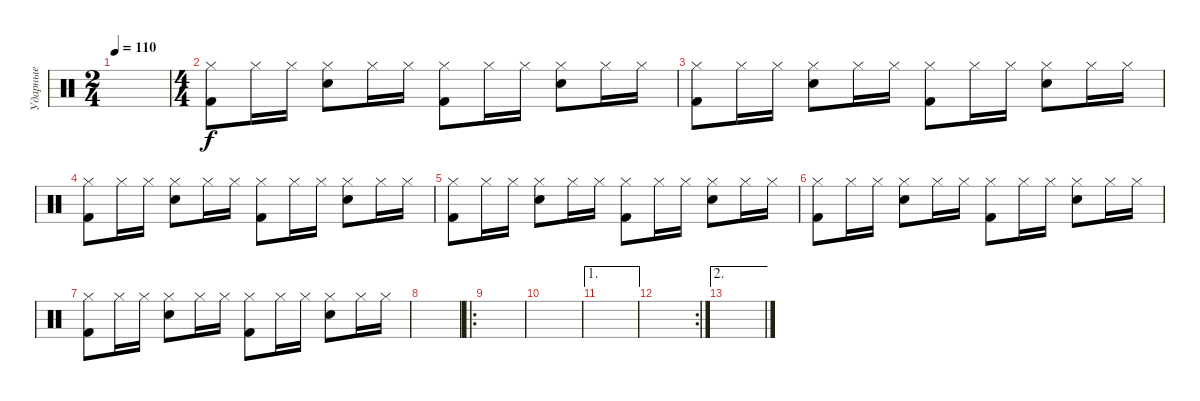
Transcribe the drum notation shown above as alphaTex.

\track ("Ударные" "Ударные") {instrument percussion}
\staff {score}
\articulation defaults
\ts (2 4)
\tempo 110
\clef neutral
\ks c
|
\ts (4 4)
("Hi-Hat (closed)" "Kick (hit) 2").8 "Hi-Hat (closed)".16 "Hi-Hat (closed)".16 ("Hi-Hat (closed)" "Electric Snare (hit)").8 "Hi-Hat (closed)".16 "Hi-Hat (closed)".16 ("Hi-Hat (closed)" "Kick (hit) 2").8 "Hi-Hat (closed)".16 "Hi-Hat (closed)".16 ("Hi-Hat (closed)" "Electric Snare (hit)").8 "Hi-Hat (closed)".16 "Hi-Hat (closed)".16 |
("Hi-Hat (closed)" "Kick (hit) 2").8 "Hi-Hat (closed)".16 "Hi-Hat (closed)".16 ("Hi-Hat (closed)" "Electric Snare (hit)").8 "Hi-Hat (closed)".16 "Hi-Hat (closed)".16 ("Hi-Hat (closed)" "Kick (hit) 2").8 "Hi-Hat (closed)".16 "Hi-Hat (closed)".16 ("Hi-Hat (closed)" "Electric Snare (hit)").8 "Hi-Hat (closed)".16 "Hi-Hat (closed)".16 |
("Hi-Hat (closed)" "Kick (hit) 2").8 "Hi-Hat (closed)".16 "Hi-Hat (closed)".16 ("Hi-Hat (closed)" "Electric Snare (hit)").8 "Hi-Hat (closed)".16 "Hi-Hat (closed)".16 ("Hi-Hat (closed)" "Kick (hit) 2").8 "Hi-Hat (closed)".16 "Hi-Hat (closed)".16 ("Hi-Hat (closed)" "Electric Snare (hit)").8 "Hi-Hat (closed)".16 "Hi-Hat (closed)".16 |
("Hi-Hat (closed)" "Kick (hit) 2").8 "Hi-Hat (closed)".16 "Hi-Hat (closed)".16 ("Hi-Hat (closed)" "Electric Snare (hit)").8 "Hi-Hat (closed)".16 "Hi-Hat (closed)".16 ("Hi-Hat (closed)" "Kick (hit) 2").8 "Hi-Hat (closed)".16 "Hi-Hat (closed)".16 ("Hi-Hat (closed)" "Electric Snare (hit)").8 "Hi-Hat (closed)".16 "Hi-Hat (closed)".16 |
("Hi-Hat (closed)" "Kick (hit) 2").8 "Hi-Hat (closed)".16 "Hi-Hat (closed)".16 ("Hi-Hat (closed)" "Electric Snare (hit)").8 "Hi-Hat (closed)".16 "Hi-Hat (closed)".16 ("Hi-Hat (closed)" "Kick (hit) 2").8 "Hi-Hat (closed)".16 "Hi-Hat (closed)".16 ("Hi-Hat (closed)" "Electric Snare (hit)").8 "Hi-Hat (closed)".16 "Hi-Hat (closed)".16 |
("Hi-Hat (closed)" "Kick (hit) 2").8 "Hi-Hat (closed)".16 "Hi-Hat (closed)".16 ("Hi-Hat (closed)" "Electric Snare (hit)").8 "Hi-Hat (closed)".16 "Hi-Hat (closed)".16 ("Hi-Hat (closed)" "Kick (hit) 2").8 "Hi-Hat (closed)".16 "Hi-Hat (closed)".16 ("Hi-Hat (closed)" "Electric Snare (hit)").8 "Hi-Hat (closed)".16 "Hi-Hat (closed)".16 |
|
\ro
|
|
\ae 1
|
\rc 2
|
\ae 2
